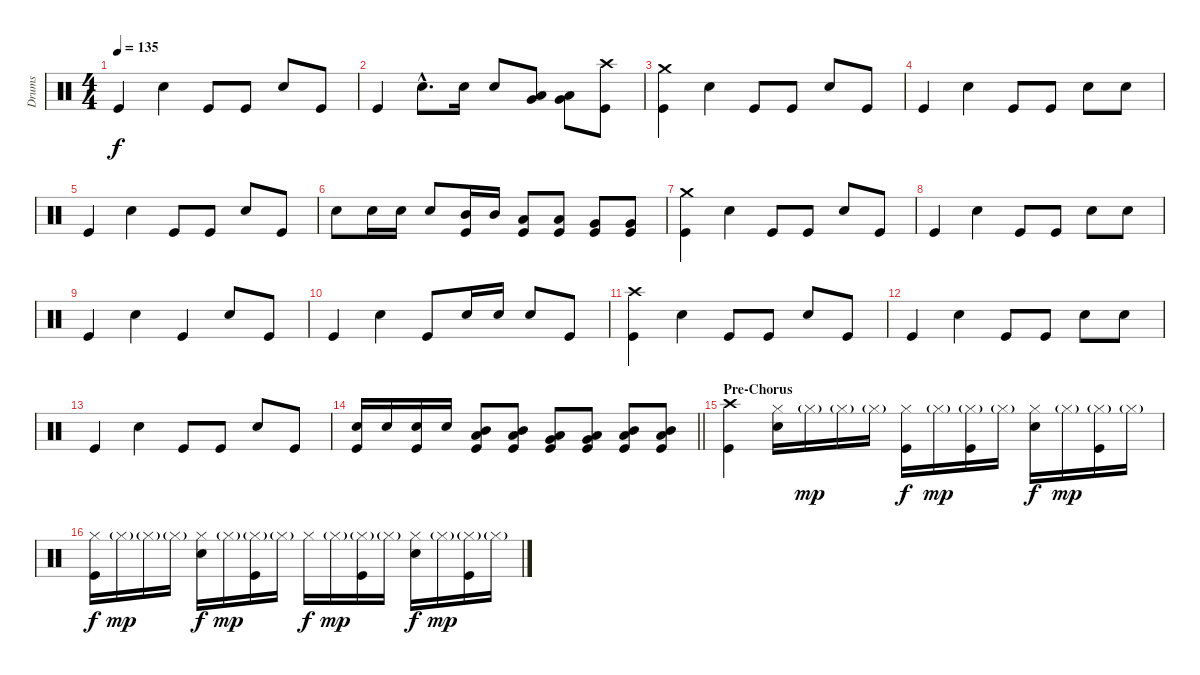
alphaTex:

\track ("Drums" "Drums") {instrument percussion}
\staff {score}
\articulation defaults
\ts (4 4)
\tempo 135
\clef neutral
\ks c "Kick (hit)".4{dy f} "Snare (hit) 2".4 "Kick (hit)".8 "Kick (hit)".8 "Snare (hit) 2".8 "Kick (hit)".8
|
"Kick (hit)".4 "Snare (hit) 2"{hac}.8{d} "Snare (hit) 2".16 "Snare (hit) 2".8 ("Low Tom (hit)" "Very Low Tom (hit)").8 ("Low Tom (hit)" "Very Low Tom (hit)").8 ("Crash high (hit)" "Kick (hit)").8 |
("Crash medium (hit)" "Kick (hit)").4 "Snare (hit) 2".4 "Kick (hit)".8 "Kick (hit)".8 "Snare (hit) 2".8 "Kick (hit)".8 |
"Kick (hit)".4 "Snare (hit) 2".4 "Kick (hit)".8 "Kick (hit)".8 "Snare (hit) 2".8 "Snare (hit) 2".8 |
"Kick (hit)".4 "Snare (hit) 2".4 "Kick (hit)".8 "Kick (hit)".8 "Snare (hit) 2".8 "Kick (hit)".8 |
"Snare (hit) 2".8 "Snare (hit) 2".16 "Snare (hit) 2".16 "Snare (hit) 2".8 ("Mid Tom (hit)" "Kick (hit)").16 "Mid Tom (hit)".16 ("Low Tom (hit)" "Kick (hit)").8 ("Low Tom (hit)" "Kick (hit)").8 ("Very Low Tom (hit)" "Kick (hit)").8 ("Very Low Tom (hit)" "Kick (hit)").8 |
("Crash medium (hit)" "Kick (hit)").4 "Snare (hit) 2".4 "Kick (hit)".8 "Kick (hit)".8 "Snare (hit) 2".8 "Kick (hit)".8 |
"Kick (hit)".4 "Snare (hit) 2".4 "Kick (hit)".8 "Kick (hit)".8 "Snare (hit) 2".8 "Snare (hit) 2".8 |
"Kick (hit)".4 "Snare (hit) 2".4 "Kick (hit)".4 "Snare (hit) 2".8 "Kick (hit)".8 |
"Kick (hit)".4 "Snare (hit) 2".4 "Kick (hit)".8 "Snare (hit) 2".16 "Snare (hit) 2".16 "Snare (hit) 2".8 "Kick (hit)".8 |
("Crash high (hit)" "Kick (hit)").4 "Snare (hit) 2".4 "Kick (hit)".8 "Kick (hit)".8 "Snare (hit) 2".8 "Kick (hit)".8 |
"Kick (hit)".4 "Snare (hit) 2".4 "Kick (hit)".8 "Kick (hit)".8 "Snare (hit) 2".8 "Snare (hit) 2".8 |
"Kick (hit)".4 "Snare (hit) 2".4 "Kick (hit)".8 "Kick (hit)".8 "Snare (hit) 2".8 "Kick (hit)".8 |
\barLineRight lightlight
("Snare (hit) 2" "Kick (hit)").16 "Snare (hit) 2".16 ("Snare (hit) 2" "Kick (hit)").16 "Snare (hit) 2".16 ("Mid Tom (hit)" "Low Tom (hit)" "Kick (hit)").8 ("Mid Tom (hit)" "Low Tom (hit)" "Kick (hit)").8 ("Low Tom (hit)" "Very Low Tom (hit)" "Kick (hit)").8 ("Low Tom (hit)" "Very Low Tom (hit)" "Kick (hit)").8 ("Mid Tom (hit)" "Low Tom (hit)" "Kick (hit)").8 ("Mid Tom (hit)" "Low Tom (hit)" "Kick (hit)").8 |
\section ("" "Pre-Chorus")
("Crash high (hit)" "Kick (hit)").4 ("Hi-Hat (closed)" "Snare (hit) 2").16 "Hi-Hat (closed)"{g}.16{dy mp} "Hi-Hat (closed)"{g}.16 "Hi-Hat (closed)"{g}.16 ("Hi-Hat (closed)" "Kick (hit)").16{dy f} "Hi-Hat (closed)"{g}.16{dy mp} ("Hi-Hat (closed)"{g} "Kick (hit)").16 "Hi-Hat (closed)"{g}.16 ("Hi-Hat (closed)" "Snare (hit) 2").16{dy f} "Hi-Hat (closed)"{g}.16{dy mp} ("Hi-Hat (closed)"{g} "Kick (hit)").16 "Hi-Hat (closed)"{g}.16 |
("Hi-Hat (closed)" "Kick (hit)").16{dy f} "Hi-Hat (closed)"{g}.16{dy mp} "Hi-Hat (closed)"{g}.16 "Hi-Hat (closed)"{g}.16 ("Hi-Hat (closed)" "Snare (hit) 2").16{dy f} "Hi-Hat (closed)"{g}.16{dy mp} ("Hi-Hat (closed)"{g} "Kick (hit)").16 "Hi-Hat (closed)"{g}.16 "Hi-Hat (closed)".16{dy f} "Hi-Hat (closed)"{g}.16{dy mp} ("Hi-Hat (closed)"{g} "Kick (hit)").16 "Hi-Hat (closed)"{g}.16 ("Hi-Hat (closed)" "Snare (hit) 2").16{dy f} "Hi-Hat (closed)"{g}.16{dy mp} ("Hi-Hat (closed)"{g} "Kick (hit)").16 "Hi-Hat (closed)"{g}.16
